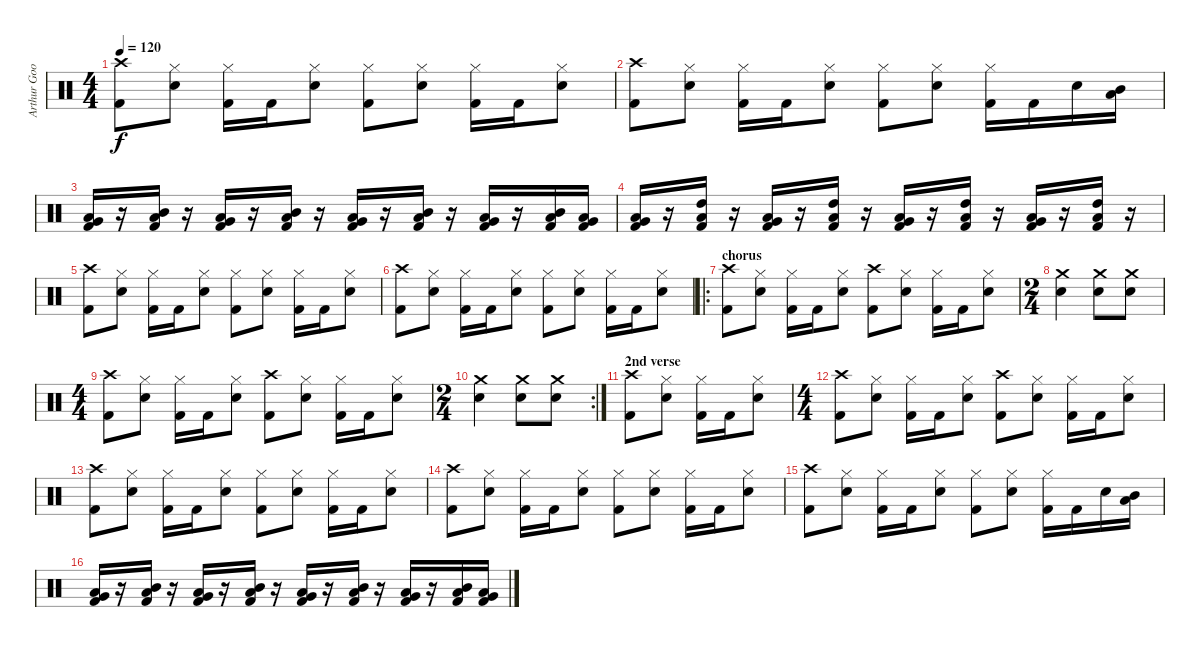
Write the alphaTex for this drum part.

\track ("Arthur Googy" "Arthur Goo") {instrument percussion}
\staff {score}
\articulation defaults
\ts (4 4)
\tempo 120
\clef neutral
\ks c
("Crash high (hit)" "Kick (hit) 2").8{dy f} ("Hi-Hat (closed)" "Snare (hit) 2").8 ("Hi-Hat (closed)" "Kick (hit) 2").16 "Kick (hit) 2".16 ("Hi-Hat (closed)" "Snare (hit) 2").8 ("Hi-Hat (closed)" "Kick (hit) 2").8 ("Hi-Hat (closed)" "Snare (hit) 2").8 ("Hi-Hat (closed)" "Kick (hit) 2").16 "Kick (hit) 2".16 ("Hi-Hat (closed)" "Snare (hit) 2").8 |
("Crash high (hit)" "Kick (hit) 2").8 ("Hi-Hat (closed)" "Snare (hit) 2").8 ("Hi-Hat (closed)" "Kick (hit) 2").16 "Kick (hit) 2".16 ("Hi-Hat (closed)" "Snare (hit) 2").8 ("Hi-Hat (closed)" "Kick (hit) 2").8 ("Hi-Hat (closed)" "Snare (hit) 2").8 ("Hi-Hat (closed)" "Kick (hit) 2").16 "Kick (hit) 2".16 "Snare (hit) 2".16 ("Mid Tom (hit)" "Low Tom (hit)").16 |
("Low Tom (hit)" "Very Low Tom (hit)" "Kick (hit) 2").16 r.16 ("Mid Tom (hit)" "Low Tom (hit)" "Kick (hit) 2").16 r.16 ("Low Tom (hit)" "Very Low Tom (hit)" "Kick (hit) 2").16 r.16 ("Mid Tom (hit)" "Low Tom (hit)" "Kick (hit) 2").16 r.16 ("Low Tom (hit)" "Very Low Tom (hit)" "Kick (hit) 2").16 r.16 ("Mid Tom (hit)" "Low Tom (hit)" "Kick (hit) 2").16 r.16 ("Low Tom (hit)" "Very Low Tom (hit)" "Kick (hit) 2").16 r.16 ("Mid Tom (hit)" "Low Tom (hit)" "Kick (hit) 2").16 ("Low Tom (hit)" "Very Low Tom (hit)" "Kick (hit) 2").16 |
("Low Tom (hit)" "Very Low Tom (hit)" "Kick (hit) 2").16 r.16 ("High Tom (hit)" "Low Tom (hit)" "Kick (hit) 2").16 r.16 ("Low Tom (hit)" "Very Low Tom (hit)" "Kick (hit) 2").16 r.16 ("High Tom (hit)" "Low Tom (hit)" "Kick (hit) 2").16 r.16 ("Low Tom (hit)" "Very Low Tom (hit)" "Kick (hit) 2").16 r.16 ("High Tom (hit)" "Low Tom (hit)" "Kick (hit) 2").16 r.16 ("Low Tom (hit)" "Very Low Tom (hit)" "Kick (hit) 2").16 r.16 ("High Tom (hit)" "Low Tom (hit)" "Kick (hit) 2").16 r.16 |
("Crash high (hit)" "Kick (hit) 2").8 ("Hi-Hat (closed)" "Snare (hit) 2").8 ("Hi-Hat (closed)" "Kick (hit) 2").16 "Kick (hit) 2".16 ("Hi-Hat (closed)" "Snare (hit) 2").8 ("Hi-Hat (closed)" "Kick (hit) 2").8 ("Hi-Hat (closed)" "Snare (hit) 2").8 ("Hi-Hat (closed)" "Kick (hit) 2").16 "Kick (hit) 2".16 ("Hi-Hat (closed)" "Snare (hit) 2").8 |
("Crash high (hit)" "Kick (hit) 2").8 ("Hi-Hat (closed)" "Snare (hit) 2").8 ("Hi-Hat (closed)" "Kick (hit) 2").16 "Kick (hit) 2".16 ("Hi-Hat (closed)" "Snare (hit) 2").8 ("Hi-Hat (closed)" "Kick (hit) 2").8 ("Hi-Hat (closed)" "Snare (hit) 2").8 ("Hi-Hat (closed)" "Kick (hit) 2").16 "Kick (hit) 2".16 ("Hi-Hat (closed)" "Snare (hit) 2").8 |
\ro
\section ("" "chorus")
("Crash high (hit)" "Kick (hit) 2").8 ("Hi-Hat (closed)" "Snare (hit) 2").8 ("Hi-Hat (closed)" "Kick (hit) 2").16 "Kick (hit) 2".16 ("Hi-Hat (closed)" "Snare (hit) 2").8 ("Crash high (hit)" "Kick (hit) 2").8 ("Hi-Hat (closed)" "Snare (hit) 2").8 ("Hi-Hat (closed)" "Kick (hit) 2").16 "Kick (hit) 2".16 ("Hi-Hat (closed)" "Snare (hit) 2").8 |
\ts (2 4)
("Crash medium (hit)" "Snare (hit) 2").4 ("Crash medium (hit)" "Snare (hit) 2").8 ("Crash medium (hit)" "Snare (hit) 2").8 |
\ts (4 4)
("Crash high (hit)" "Kick (hit) 2").8 ("Hi-Hat (closed)" "Snare (hit) 2").8 ("Hi-Hat (closed)" "Kick (hit) 2").16 "Kick (hit) 2".16 ("Hi-Hat (closed)" "Snare (hit) 2").8 ("Crash high (hit)" "Kick (hit) 2").8 ("Hi-Hat (closed)" "Snare (hit) 2").8 ("Hi-Hat (closed)" "Kick (hit) 2").16 "Kick (hit) 2".16 ("Hi-Hat (closed)" "Snare (hit) 2").8 |
\rc 2
\ts (2 4)
("Crash medium (hit)" "Snare (hit) 2").4 ("Crash medium (hit)" "Snare (hit) 2").8 ("Crash medium (hit)" "Snare (hit) 2").8 |
\section ("" "2nd verse")
("Crash high (hit)" "Kick (hit) 2").8 ("Hi-Hat (closed)" "Snare (hit) 2").8 ("Hi-Hat (closed)" "Kick (hit) 2").16 "Kick (hit) 2".16 ("Hi-Hat (closed)" "Snare (hit) 2").8 |
\ts (4 4)
("Crash high (hit)" "Kick (hit) 2").8 ("Hi-Hat (closed)" "Snare (hit) 2").8 ("Hi-Hat (closed)" "Kick (hit) 2").16 "Kick (hit) 2".16 ("Hi-Hat (closed)" "Snare (hit) 2").8 ("Crash high (hit)" "Kick (hit) 2").8 ("Hi-Hat (closed)" "Snare (hit) 2").8 ("Hi-Hat (closed)" "Kick (hit) 2").16 "Kick (hit) 2".16 ("Hi-Hat (closed)" "Snare (hit) 2").8 |
("Crash high (hit)" "Kick (hit) 2").8 ("Hi-Hat (closed)" "Snare (hit) 2").8 ("Hi-Hat (closed)" "Kick (hit) 2").16 "Kick (hit) 2".16 ("Hi-Hat (closed)" "Snare (hit) 2").8 ("Hi-Hat (closed)" "Kick (hit) 2").8 ("Hi-Hat (closed)" "Snare (hit) 2").8 ("Hi-Hat (closed)" "Kick (hit) 2").16 "Kick (hit) 2".16 ("Hi-Hat (closed)" "Snare (hit) 2").8 |
("Crash high (hit)" "Kick (hit) 2").8 ("Hi-Hat (closed)" "Snare (hit) 2").8 ("Hi-Hat (closed)" "Kick (hit) 2").16 "Kick (hit) 2".16 ("Hi-Hat (closed)" "Snare (hit) 2").8 ("Hi-Hat (closed)" "Kick (hit) 2").8 ("Hi-Hat (closed)" "Snare (hit) 2").8 ("Hi-Hat (closed)" "Kick (hit) 2").16 "Kick (hit) 2".16 ("Hi-Hat (closed)" "Snare (hit) 2").8 |
("Crash high (hit)" "Kick (hit) 2").8 ("Hi-Hat (closed)" "Snare (hit) 2").8 ("Hi-Hat (closed)" "Kick (hit) 2").16 "Kick (hit) 2".16 ("Hi-Hat (closed)" "Snare (hit) 2").8 ("Hi-Hat (closed)" "Kick (hit) 2").8 ("Hi-Hat (closed)" "Snare (hit) 2").8 ("Hi-Hat (closed)" "Kick (hit) 2").16 "Kick (hit) 2".16 "Snare (hit) 2".16 ("Mid Tom (hit)" "Low Tom (hit)").16 |
("Low Tom (hit)" "Very Low Tom (hit)" "Kick (hit) 2").16 r.16 ("Mid Tom (hit)" "Low Tom (hit)" "Kick (hit) 2").16 r.16 ("Low Tom (hit)" "Very Low Tom (hit)" "Kick (hit) 2").16 r.16 ("Mid Tom (hit)" "Low Tom (hit)" "Kick (hit) 2").16 r.16 ("Low Tom (hit)" "Very Low Tom (hit)" "Kick (hit) 2").16 r.16 ("Mid Tom (hit)" "Low Tom (hit)" "Kick (hit) 2").16 r.16 ("Low Tom (hit)" "Very Low Tom (hit)" "Kick (hit) 2").16 r.16 ("Mid Tom (hit)" "Low Tom (hit)" "Kick (hit) 2").16 ("Low Tom (hit)" "Very Low Tom (hit)" "Kick (hit) 2").16
